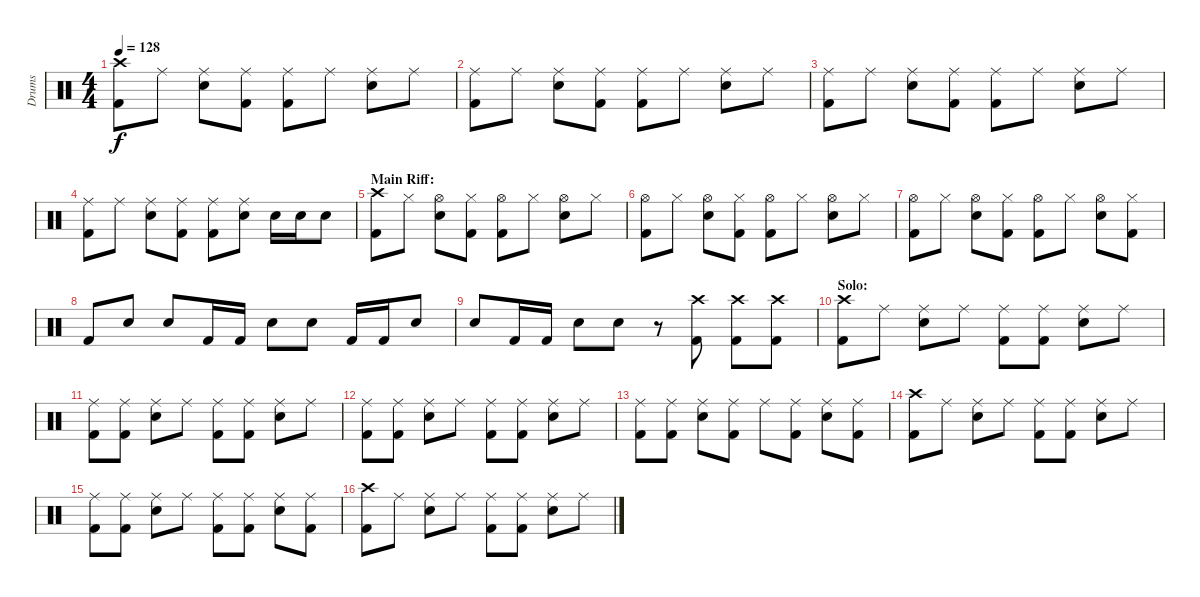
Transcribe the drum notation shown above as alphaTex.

\track ("Drums" "Drums") {instrument percussion}
\staff {score}
\articulation defaults
\ts (4 4)
\tempo 128
\clef neutral
\ks c
("Crash high (hit)" "Kick (hit) 2").8{dy f} "Ride (middle)".8 ("Ride (middle)" "Electric Snare (hit)").8 ("Ride (middle)" "Kick (hit) 2").8 ("Ride (middle)" "Kick (hit) 2").8 "Ride (middle)".8 ("Ride (middle)" "Electric Snare (hit)").8 "Ride (middle)".8 |
("Ride (middle)" "Kick (hit) 2").8 "Ride (middle)".8 ("Ride (middle)" "Electric Snare (hit)").8 ("Ride (middle)" "Kick (hit) 2").8 ("Ride (middle)" "Kick (hit) 2").8 "Ride (middle)".8 ("Ride (middle)" "Electric Snare (hit)").8 "Ride (middle)".8 |
("Ride (middle)" "Kick (hit) 2").8 "Ride (middle)".8 ("Ride (middle)" "Electric Snare (hit)").8 ("Ride (middle)" "Kick (hit) 2").8 ("Ride (middle)" "Kick (hit) 2").8 "Ride (middle)".8 ("Ride (middle)" "Electric Snare (hit)").8 "Ride (middle)".8 |
("Ride (middle)" "Kick (hit) 2").8 "Ride (middle)".8 ("Ride (middle)" "Electric Snare (hit)").8 ("Ride (middle)" "Kick (hit) 2").8 ("Ride (middle)" "Kick (hit) 2").8 ("Ride (middle)" "Electric Snare (hit)").8 "Electric Snare (hit)".16 "Electric Snare (hit)".16 "Electric Snare (hit)".8 |
\section ("" "Main Riff:")
("Crash high (hit)" "Kick (hit) 2").8 "Hi-Hat (closed)".8 ("Hi-Hat (open)" "Electric Snare (hit)").8 ("Hi-Hat (closed)" "Kick (hit) 2").8 ("Hi-Hat (open)" "Kick (hit) 2").8 "Hi-Hat (closed)".8 ("Hi-Hat (open)" "Electric Snare (hit)").8 "Hi-Hat (closed)".8 |
("Hi-Hat (open)" "Kick (hit) 2").8 "Hi-Hat (closed)".8 ("Hi-Hat (open)" "Electric Snare (hit)").8 ("Hi-Hat (closed)" "Kick (hit) 2").8 ("Hi-Hat (open)" "Kick (hit) 2").8 "Hi-Hat (closed)".8 ("Hi-Hat (open)" "Electric Snare (hit)").8 "Hi-Hat (closed)".8 |
("Hi-Hat (open)" "Kick (hit) 2").8 "Hi-Hat (closed)".8 ("Hi-Hat (open)" "Electric Snare (hit)").8 ("Hi-Hat (closed)" "Kick (hit) 2").8 ("Hi-Hat (open)" "Kick (hit) 2").8 "Hi-Hat (closed)".8 ("Hi-Hat (open)" "Electric Snare (hit)").8 ("Hi-Hat (closed)" "Kick (hit) 2").8 |
"Kick (hit) 2".8 "Electric Snare (hit)".8 "Electric Snare (hit)".8 "Kick (hit) 2".16 "Kick (hit) 2".16 "Electric Snare (hit)".8 "Electric Snare (hit)".8 "Kick (hit) 2".16 "Kick (hit) 2".16 "Electric Snare (hit)".8 |
"Electric Snare (hit)".8 "Kick (hit) 2".16 "Kick (hit) 2".16 "Electric Snare (hit)".8 "Electric Snare (hit)".8 r.8 ("Crash high (hit)" "Kick (hit) 2").8 ("Crash high (hit)" "Kick (hit) 2").8 ("Crash high (hit)" "Kick (hit) 2").8 |
\section ("" "Solo:")
("Crash high (hit)" "Kick (hit) 2").8 "Ride (middle)".8 ("Ride (middle)" "Electric Snare (hit)").8 "Ride (middle)".8 ("Ride (middle)" "Kick (hit) 2").8 ("Ride (middle)" "Kick (hit) 2").8 ("Ride (middle)" "Electric Snare (hit)").8 "Ride (middle)".8 |
("Ride (middle)" "Kick (hit) 2").8 ("Ride (middle)" "Kick (hit) 2").8 ("Ride (middle)" "Electric Snare (hit)").8 "Ride (middle)".8 ("Ride (middle)" "Kick (hit) 2").8 ("Ride (middle)" "Kick (hit) 2").8 ("Ride (middle)" "Electric Snare (hit)").8 "Ride (middle)".8 |
("Ride (middle)" "Kick (hit) 2").8 ("Ride (middle)" "Kick (hit) 2").8 ("Ride (middle)" "Electric Snare (hit)").8 "Ride (middle)".8 ("Ride (middle)" "Kick (hit) 2").8 ("Ride (middle)" "Kick (hit) 2").8 ("Ride (middle)" "Electric Snare (hit)").8 "Ride (middle)".8 |
("Ride (middle)" "Kick (hit) 2").8 ("Ride (middle)" "Kick (hit) 2").8 ("Ride (middle)" "Electric Snare (hit)").8 ("Ride (middle)" "Kick (hit) 2").8 "Ride (middle)".8 ("Ride (middle)" "Kick (hit) 2").8 ("Ride (middle)" "Electric Snare (hit)").8 ("Ride (middle)" "Kick (hit) 2").8 |
("Crash high (hit)" "Kick (hit) 2").8 "Ride (middle)".8 ("Ride (middle)" "Electric Snare (hit)").8 "Ride (middle)".8 ("Ride (middle)" "Kick (hit) 2").8 ("Ride (middle)" "Kick (hit) 2").8 ("Ride (middle)" "Electric Snare (hit)").8 "Ride (middle)".8 |
("Ride (middle)" "Kick (hit) 2").8 ("Ride (middle)" "Kick (hit) 2").8 ("Ride (middle)" "Electric Snare (hit)").8 "Ride (middle)".8 ("Ride (middle)" "Kick (hit) 2").8 ("Ride (middle)" "Kick (hit) 2").8 ("Ride (middle)" "Electric Snare (hit)").8 ("Ride (middle)" "Kick (hit) 2").8 |
("Crash high (hit)" "Kick (hit) 2").8 "Ride (middle)".8 ("Ride (middle)" "Electric Snare (hit)").8 "Ride (middle)".8 ("Ride (middle)" "Kick (hit) 2").8 ("Ride (middle)" "Kick (hit) 2").8 ("Ride (middle)" "Electric Snare (hit)").8 "Ride (middle)".8
